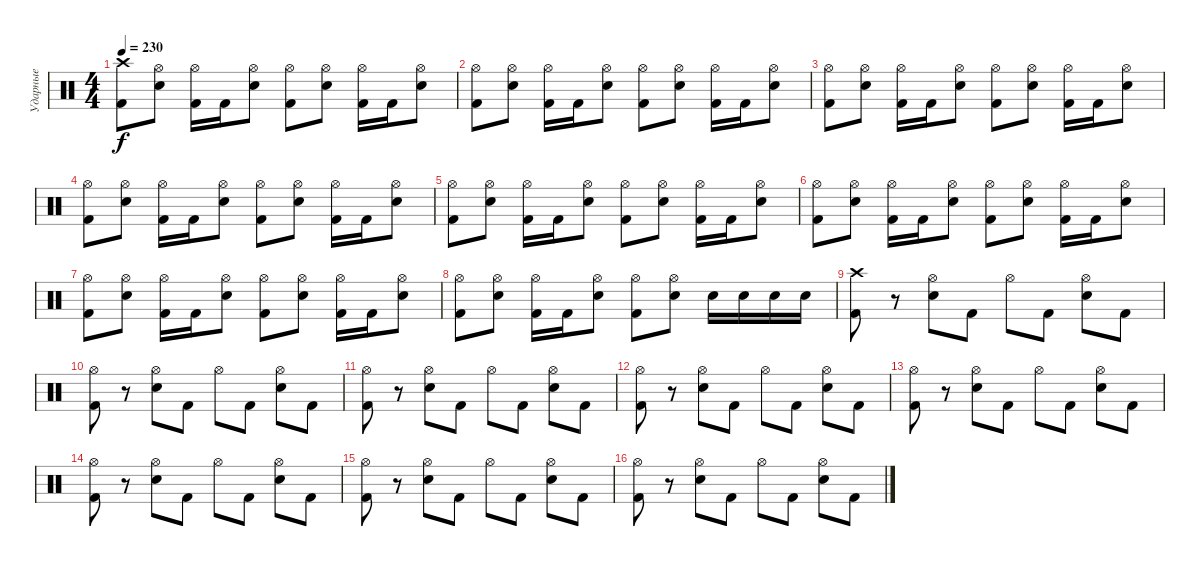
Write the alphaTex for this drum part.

\track ("Ударные" "Ударные") {instrument percussion}
\staff {score}
\articulation defaults
\ts (4 4)
\tempo 230
\clef neutral
\ks c
("Crash high (hit)" "Kick (hit) 2").8{dy f} ("Hi-Hat (open)" "Electric Snare (hit)").8 ("Hi-Hat (open)" "Kick (hit) 2").16 "Kick (hit) 2".16 ("Hi-Hat (open)" "Electric Snare (hit)").8 ("Hi-Hat (open)" "Kick (hit) 2").8 ("Hi-Hat (open)" "Electric Snare (hit)").8 ("Hi-Hat (open)" "Kick (hit) 2").16 "Kick (hit) 2".16 ("Hi-Hat (open)" "Electric Snare (hit)").8 |
("Hi-Hat (open)" "Kick (hit) 2").8 ("Hi-Hat (open)" "Electric Snare (hit)").8 ("Hi-Hat (open)" "Kick (hit) 2").16 "Kick (hit) 2".16 ("Hi-Hat (open)" "Electric Snare (hit)").8 ("Hi-Hat (open)" "Kick (hit) 2").8 ("Hi-Hat (open)" "Electric Snare (hit)").8 ("Hi-Hat (open)" "Kick (hit) 2").16 "Kick (hit) 2".16 ("Hi-Hat (open)" "Electric Snare (hit)").8 |
("Hi-Hat (open)" "Kick (hit) 2").8 ("Hi-Hat (open)" "Electric Snare (hit)").8 ("Hi-Hat (open)" "Kick (hit) 2").16 "Kick (hit) 2".16 ("Hi-Hat (open)" "Electric Snare (hit)").8 ("Hi-Hat (open)" "Kick (hit) 2").8 ("Hi-Hat (open)" "Electric Snare (hit)").8 ("Hi-Hat (open)" "Kick (hit) 2").16 "Kick (hit) 2".16 ("Hi-Hat (open)" "Electric Snare (hit)").8 |
("Hi-Hat (open)" "Kick (hit) 2").8 ("Hi-Hat (open)" "Electric Snare (hit)").8 ("Hi-Hat (open)" "Kick (hit) 2").16 "Kick (hit) 2".16 ("Hi-Hat (open)" "Electric Snare (hit)").8 ("Hi-Hat (open)" "Kick (hit) 2").8 ("Hi-Hat (open)" "Electric Snare (hit)").8 ("Hi-Hat (open)" "Kick (hit) 2").16 "Kick (hit) 2".16 ("Hi-Hat (open)" "Electric Snare (hit)").8 |
("Hi-Hat (open)" "Kick (hit) 2").8 ("Hi-Hat (open)" "Electric Snare (hit)").8 ("Hi-Hat (open)" "Kick (hit) 2").16 "Kick (hit) 2".16 ("Hi-Hat (open)" "Electric Snare (hit)").8 ("Hi-Hat (open)" "Kick (hit) 2").8 ("Hi-Hat (open)" "Electric Snare (hit)").8 ("Hi-Hat (open)" "Kick (hit) 2").16 "Kick (hit) 2".16 ("Hi-Hat (open)" "Electric Snare (hit)").8 |
("Hi-Hat (open)" "Kick (hit) 2").8 ("Hi-Hat (open)" "Electric Snare (hit)").8 ("Hi-Hat (open)" "Kick (hit) 2").16 "Kick (hit) 2".16 ("Hi-Hat (open)" "Electric Snare (hit)").8 ("Hi-Hat (open)" "Kick (hit) 2").8 ("Hi-Hat (open)" "Electric Snare (hit)").8 ("Hi-Hat (open)" "Kick (hit) 2").16 "Kick (hit) 2".16 ("Hi-Hat (open)" "Electric Snare (hit)").8 |
("Hi-Hat (open)" "Kick (hit) 2").8 ("Hi-Hat (open)" "Electric Snare (hit)").8 ("Hi-Hat (open)" "Kick (hit) 2").16 "Kick (hit) 2".16 ("Hi-Hat (open)" "Electric Snare (hit)").8 ("Hi-Hat (open)" "Kick (hit) 2").8 ("Hi-Hat (open)" "Electric Snare (hit)").8 ("Hi-Hat (open)" "Kick (hit) 2").16 "Kick (hit) 2".16 ("Hi-Hat (open)" "Electric Snare (hit)").8 |
("Hi-Hat (open)" "Kick (hit) 2").8 ("Hi-Hat (open)" "Electric Snare (hit)").8 ("Hi-Hat (open)" "Kick (hit) 2").16 "Kick (hit) 2".16 ("Hi-Hat (open)" "Electric Snare (hit)").8 ("Hi-Hat (open)" "Kick (hit) 2").8 ("Hi-Hat (open)" "Electric Snare (hit)").8 "Electric Snare (hit)".16 "Electric Snare (hit)".16 "Electric Snare (hit)".16 "Electric Snare (hit)".16 |
("Crash high (hit)" "Kick (hit) 2").8 r.8 ("Hi-Hat (open)" "Electric Snare (hit)").8 "Kick (hit) 2".8 "Hi-Hat (open)".8 "Kick (hit) 2".8 ("Hi-Hat (open)" "Electric Snare (hit)").8 "Kick (hit) 2".8 |
("Hi-Hat (open)" "Kick (hit) 2").8 r.8 ("Hi-Hat (open)" "Electric Snare (hit)").8 "Kick (hit) 2".8 "Hi-Hat (open)".8 "Kick (hit) 2".8 ("Hi-Hat (open)" "Electric Snare (hit)").8 "Kick (hit) 2".8 |
("Hi-Hat (open)" "Kick (hit) 2").8 r.8 ("Hi-Hat (open)" "Electric Snare (hit)").8 "Kick (hit) 2".8 "Hi-Hat (open)".8 "Kick (hit) 2".8 ("Hi-Hat (open)" "Electric Snare (hit)").8 "Kick (hit) 2".8 |
("Hi-Hat (open)" "Kick (hit) 2").8 r.8 ("Hi-Hat (open)" "Electric Snare (hit)").8 "Kick (hit) 2".8 "Hi-Hat (open)".8 "Kick (hit) 2".8 ("Hi-Hat (open)" "Electric Snare (hit)").8 "Kick (hit) 2".8 |
("Hi-Hat (open)" "Kick (hit) 2").8 r.8 ("Hi-Hat (open)" "Electric Snare (hit)").8 "Kick (hit) 2".8 "Hi-Hat (open)".8 "Kick (hit) 2".8 ("Hi-Hat (open)" "Electric Snare (hit)").8 "Kick (hit) 2".8 |
("Hi-Hat (open)" "Kick (hit) 2").8 r.8 ("Hi-Hat (open)" "Electric Snare (hit)").8 "Kick (hit) 2".8 "Hi-Hat (open)".8 "Kick (hit) 2".8 ("Hi-Hat (open)" "Electric Snare (hit)").8 "Kick (hit) 2".8 |
("Hi-Hat (open)" "Kick (hit) 2").8 r.8 ("Hi-Hat (open)" "Electric Snare (hit)").8 "Kick (hit) 2".8 "Hi-Hat (open)".8 "Kick (hit) 2".8 ("Hi-Hat (open)" "Electric Snare (hit)").8 "Kick (hit) 2".8 |
("Hi-Hat (open)" "Kick (hit) 2").8 r.8 ("Hi-Hat (open)" "Electric Snare (hit)").8 "Kick (hit) 2".8 "Hi-Hat (open)".8 "Kick (hit) 2".8 ("Hi-Hat (open)" "Electric Snare (hit)").8 "Kick (hit) 2".8
